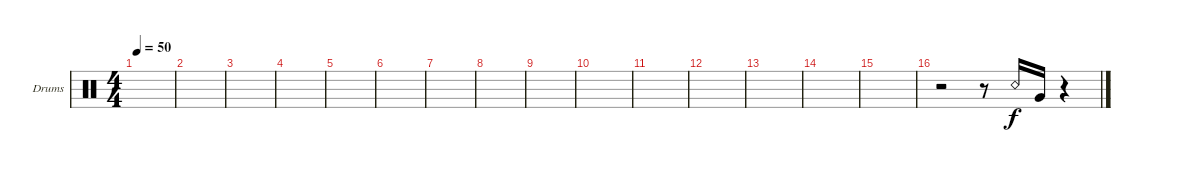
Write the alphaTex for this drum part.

\defaultSystemsLayout 4
\bracketExtendMode groupsimilarinstruments
\firstSystemTrackNameOrientation horizontal
\otherSystemsTrackNameOrientation horizontal
\track ("Drumkit" "Drums") {instrument percussion}
\staff {score}
\articulation defaults
\ts (4 4)
\tempo 50
\clef neutral
\ks c
|
|
|
|
|
|
|
|
|
|
|
|
|
|
|
r.2 r.8 "Snare (rim shot)".16 "Very Low Tom (hit)".16 r.4
